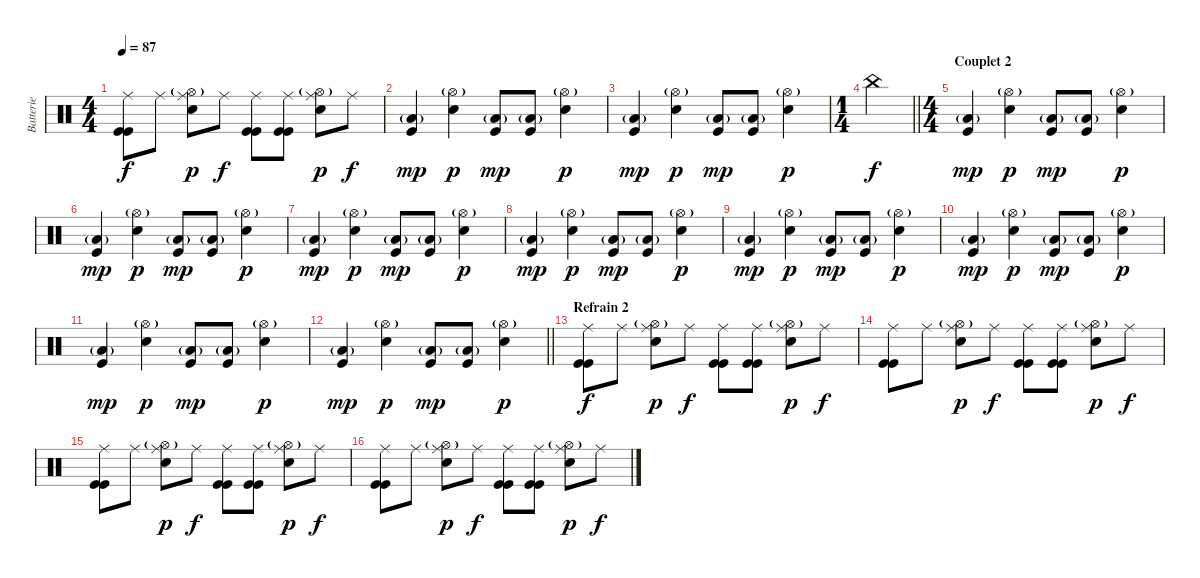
\track ("Batterie" "Batterie") {instrument percussion}
\staff {score}
\articulation defaults
\ts (4 4)
\tempo 87
\clef neutral
\ks c
("Ride (middle)" "Kick (hit)" "Kick (hit)").8{dy f} "Ride (middle)".8 ("Hi-Hat (open)"{g} "Ride (middle)" "Electric Snare (hit)").8{dy p} "Ride (middle)".8{dy f} ("Ride (middle)" "Kick (hit)" "Kick (hit)").8 ("Ride (middle)" "Kick (hit)" "Kick (hit)").8 ("Hi-Hat (open)"{g} "Ride (middle)" "Electric Snare (hit)").8{dy p} "Ride (middle)".8{dy f} |
("Kick (hit)" "Low Floor Tom (hit)"{g}).4{dy mp} ("Hi-Hat (open)"{g} "Electric Snare (hit)").4{dy p} ("Kick (hit)" "Low Floor Tom (hit)"{g}).8{dy mp} ("Kick (hit)" "Low Floor Tom (hit)"{g}).8 ("Hi-Hat (open)"{g} "Electric Snare (hit)").4{dy p} |
("Kick (hit)" "Low Floor Tom (hit)"{g}).4{dy mp} ("Hi-Hat (open)"{g} "Electric Snare (hit)").4{dy p} ("Kick (hit)" "Low Floor Tom (hit)"{g}).8{dy mp} ("Kick (hit)" "Low Floor Tom (hit)"{g}).8 ("Hi-Hat (open)"{g} "Electric Snare (hit)").4{dy p} |
\ts (1 4)
\barLineRight lightlight "China (hit)".4{dy f}
|
\ts (4 4)
\section ("" "Couplet 2")
("Kick (hit)" "Low Floor Tom (hit)"{g}).4{dy mp} ("Hi-Hat (open)"{g} "Electric Snare (hit)").4{dy p} ("Kick (hit)" "Low Floor Tom (hit)"{g}).8{dy mp} ("Kick (hit)" "Low Floor Tom (hit)"{g}).8 ("Hi-Hat (open)"{g} "Electric Snare (hit)").4{dy p} |
("Kick (hit)" "Low Floor Tom (hit)"{g}).4{dy mp} ("Hi-Hat (open)"{g} "Electric Snare (hit)").4{dy p} ("Kick (hit)" "Low Floor Tom (hit)"{g}).8{dy mp} ("Kick (hit)" "Low Floor Tom (hit)"{g}).8 ("Hi-Hat (open)"{g} "Electric Snare (hit)").4{dy p} |
("Kick (hit)" "Low Floor Tom (hit)"{g}).4{dy mp} ("Hi-Hat (open)"{g} "Electric Snare (hit)").4{dy p} ("Kick (hit)" "Low Floor Tom (hit)"{g}).8{dy mp} ("Kick (hit)" "Low Floor Tom (hit)"{g}).8 ("Hi-Hat (open)"{g} "Electric Snare (hit)").4{dy p} |
("Kick (hit)" "Low Floor Tom (hit)"{g}).4{dy mp} ("Hi-Hat (open)"{g} "Electric Snare (hit)").4{dy p} ("Kick (hit)" "Low Floor Tom (hit)"{g}).8{dy mp} ("Kick (hit)" "Low Floor Tom (hit)"{g}).8 ("Hi-Hat (open)"{g} "Electric Snare (hit)").4{dy p} |
("Kick (hit)" "Low Floor Tom (hit)"{g}).4{dy mp} ("Hi-Hat (open)"{g} "Electric Snare (hit)").4{dy p} ("Kick (hit)" "Low Floor Tom (hit)"{g}).8{dy mp} ("Kick (hit)" "Low Floor Tom (hit)"{g}).8 ("Hi-Hat (open)"{g} "Electric Snare (hit)").4{dy p} |
("Kick (hit)" "Low Floor Tom (hit)"{g}).4{dy mp} ("Hi-Hat (open)"{g} "Electric Snare (hit)").4{dy p} ("Kick (hit)" "Low Floor Tom (hit)"{g}).8{dy mp} ("Kick (hit)" "Low Floor Tom (hit)"{g}).8 ("Hi-Hat (open)"{g} "Electric Snare (hit)").4{dy p} |
("Kick (hit)" "Low Floor Tom (hit)"{g}).4{dy mp} ("Hi-Hat (open)"{g} "Electric Snare (hit)").4{dy p} ("Kick (hit)" "Low Floor Tom (hit)"{g}).8{dy mp} ("Kick (hit)" "Low Floor Tom (hit)"{g}).8 ("Hi-Hat (open)"{g} "Electric Snare (hit)").4{dy p} |
\barLineRight lightlight
("Kick (hit)" "Low Floor Tom (hit)"{g}).4{dy mp} ("Hi-Hat (open)"{g} "Electric Snare (hit)").4{dy p} ("Kick (hit)" "Low Floor Tom (hit)"{g}).8{dy mp} ("Kick (hit)" "Low Floor Tom (hit)"{g}).8 ("Hi-Hat (open)"{g} "Electric Snare (hit)").4{dy p} |
\section ("" "Refrain 2")
("Ride (middle)" "Kick (hit)" "Kick (hit)").8{dy f} "Ride (middle)".8 ("Hi-Hat (open)"{g} "Ride (middle)" "Electric Snare (hit)").8{dy p} "Ride (middle)".8{dy f} ("Ride (middle)" "Kick (hit)" "Kick (hit)").8 ("Ride (middle)" "Kick (hit)" "Kick (hit)").8 ("Hi-Hat (open)"{g} "Ride (middle)" "Electric Snare (hit)").8{dy p} "Ride (middle)".8{dy f} |
("Ride (middle)" "Kick (hit)" "Kick (hit)").8 "Ride (middle)".8 ("Hi-Hat (open)"{g} "Ride (middle)" "Electric Snare (hit)").8{dy p} "Ride (middle)".8{dy f} ("Ride (middle)" "Kick (hit)" "Kick (hit)").8 ("Ride (middle)" "Kick (hit)" "Kick (hit)").8 ("Hi-Hat (open)"{g} "Ride (middle)" "Electric Snare (hit)").8{dy p} "Ride (middle)".8{dy f} |
("Ride (middle)" "Kick (hit)" "Kick (hit)").8 "Ride (middle)".8 ("Hi-Hat (open)"{g} "Ride (middle)" "Electric Snare (hit)").8{dy p} "Ride (middle)".8{dy f} ("Ride (middle)" "Kick (hit)" "Kick (hit)").8 ("Ride (middle)" "Kick (hit)" "Kick (hit)").8 ("Hi-Hat (open)"{g} "Ride (middle)" "Electric Snare (hit)").8{dy p} "Ride (middle)".8{dy f} |
("Ride (middle)" "Kick (hit)" "Kick (hit)").8 "Ride (middle)".8 ("Hi-Hat (open)"{g} "Ride (middle)" "Electric Snare (hit)").8{dy p} "Ride (middle)".8{dy f} ("Ride (middle)" "Kick (hit)" "Kick (hit)").8 ("Ride (middle)" "Kick (hit)" "Kick (hit)").8 ("Hi-Hat (open)"{g} "Ride (middle)" "Electric Snare (hit)").8{dy p} "Ride (middle)".8{dy f}
